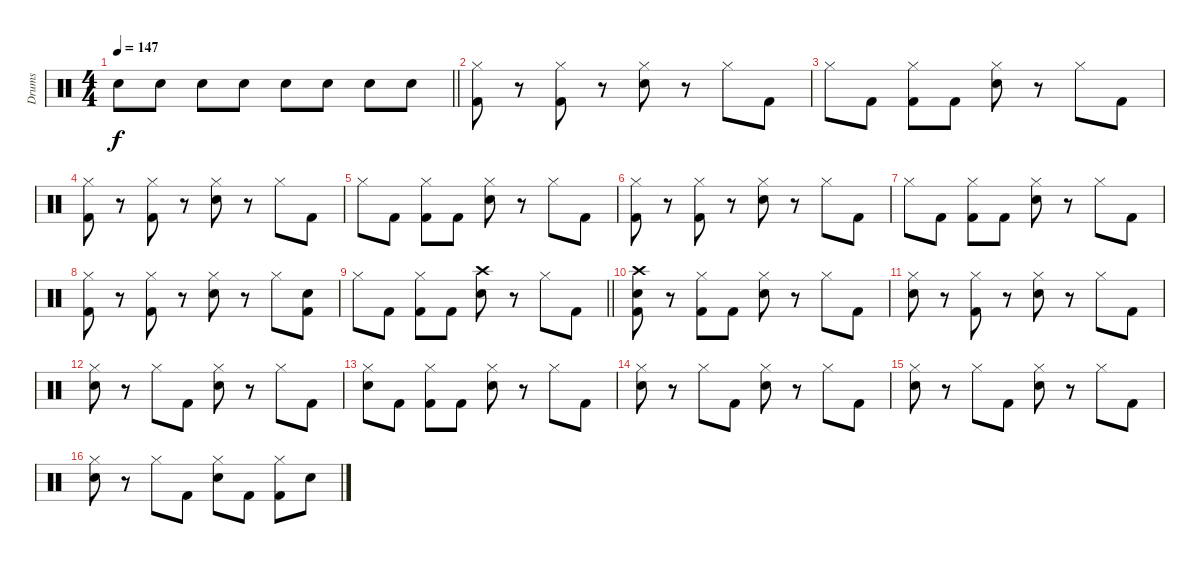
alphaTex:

\track ("Drums" "Drums") {instrument percussion}
\staff {score}
\articulation defaults
\ts (4 4)
\tempo 147
\clef neutral
\barLineRight lightlight
\ks c "Electric Snare (hit)".8{dy f} "Electric Snare (hit)".8 "Electric Snare (hit)".8 "Electric Snare (hit)".8 "Electric Snare (hit)".8 "Electric Snare (hit)".8 "Electric Snare (hit)".8 "Electric Snare (hit)".8
|
("Hi-Hat (closed)" "Kick (hit) 2").8 r.8 ("Hi-Hat (closed)" "Kick (hit) 2").8 r.8 ("Hi-Hat (closed)" "Electric Snare (hit)").8 r.8 "Hi-Hat (closed)".8 "Kick (hit) 2".8 |
"Hi-Hat (closed)".8 "Kick (hit) 2".8 ("Hi-Hat (closed)" "Kick (hit) 2").8 "Kick (hit) 2".8 ("Hi-Hat (closed)" "Electric Snare (hit)").8 r.8 "Hi-Hat (closed)".8 "Kick (hit) 2".8 |
("Hi-Hat (closed)" "Kick (hit) 2").8 r.8 ("Hi-Hat (closed)" "Kick (hit) 2").8 r.8 ("Hi-Hat (closed)" "Electric Snare (hit)").8 r.8 "Hi-Hat (closed)".8 "Kick (hit) 2".8 |
"Hi-Hat (closed)".8 "Kick (hit) 2".8 ("Hi-Hat (closed)" "Kick (hit) 2").8 "Kick (hit) 2".8 ("Hi-Hat (closed)" "Electric Snare (hit)").8 r.8 "Hi-Hat (closed)".8 "Kick (hit) 2".8 |
("Hi-Hat (closed)" "Kick (hit) 2").8 r.8 ("Hi-Hat (closed)" "Kick (hit) 2").8 r.8 ("Hi-Hat (closed)" "Electric Snare (hit)").8 r.8 "Hi-Hat (closed)".8 "Kick (hit) 2".8 |
"Hi-Hat (closed)".8 "Kick (hit) 2".8 ("Hi-Hat (closed)" "Kick (hit) 2").8 "Kick (hit) 2".8 ("Hi-Hat (closed)" "Electric Snare (hit)").8 r.8 "Hi-Hat (closed)".8 "Kick (hit) 2".8 |
("Hi-Hat (closed)" "Kick (hit) 2").8 r.8 ("Hi-Hat (closed)" "Kick (hit) 2").8 r.8 ("Hi-Hat (closed)" "Electric Snare (hit)").8 r.8 "Hi-Hat (closed)".8 ("Electric Snare (hit)" "Kick (hit) 2").8 |
\barLineRight lightlight "Hi-Hat (closed)".8 "Kick (hit) 2".8
("Hi-Hat (closed)" "Kick (hit) 2").8 "Kick (hit) 2".8 ("Crash high (hit)" "Electric Snare (hit)").8 r.8 "Hi-Hat (closed)".8 "Kick (hit) 2".8 |
("Crash high (hit)" "Electric Snare (hit)" "Kick (hit) 2").8 r.8 ("Hi-Hat (closed)" "Kick (hit) 2").8 "Kick (hit) 2".8 ("Hi-Hat (closed)" "Electric Snare (hit)").8 r.8 "Hi-Hat (closed)".8 "Kick (hit) 2".8 |
("Hi-Hat (closed)" "Electric Snare (hit)").8 r.8 ("Hi-Hat (closed)" "Kick (hit) 2").8 r.8 ("Hi-Hat (closed)" "Electric Snare (hit)").8 r.8 "Hi-Hat (closed)".8 "Kick (hit) 2".8 |
("Hi-Hat (closed)" "Electric Snare (hit)").8 r.8 "Hi-Hat (closed)".8 "Kick (hit) 2".8 ("Hi-Hat (closed)" "Electric Snare (hit)").8 r.8 "Hi-Hat (closed)".8 "Kick (hit) 2".8 |
("Hi-Hat (closed)" "Electric Snare (hit)").8 "Kick (hit) 2".8 ("Hi-Hat (closed)" "Kick (hit) 2").8 "Kick (hit) 2".8 ("Hi-Hat (closed)" "Electric Snare (hit)").8 r.8 "Hi-Hat (closed)".8 "Kick (hit) 2".8 |
("Hi-Hat (closed)" "Electric Snare (hit)").8 r.8 "Hi-Hat (closed)".8 "Kick (hit) 2".8 ("Hi-Hat (closed)" "Electric Snare (hit)").8 r.8 "Hi-Hat (closed)".8 "Kick (hit) 2".8 |
("Hi-Hat (closed)" "Electric Snare (hit)").8 r.8 "Hi-Hat (closed)".8 "Kick (hit) 2".8 ("Hi-Hat (closed)" "Electric Snare (hit)").8 r.8 "Hi-Hat (closed)".8 "Kick (hit) 2".8 |
("Hi-Hat (closed)" "Electric Snare (hit)").8 r.8 "Hi-Hat (closed)".8 "Kick (hit) 2".8 ("Hi-Hat (closed)" "Electric Snare (hit)").8 "Kick (hit) 2".8 ("Hi-Hat (closed)" "Kick (hit) 2").8 "Electric Snare (hit)".8
